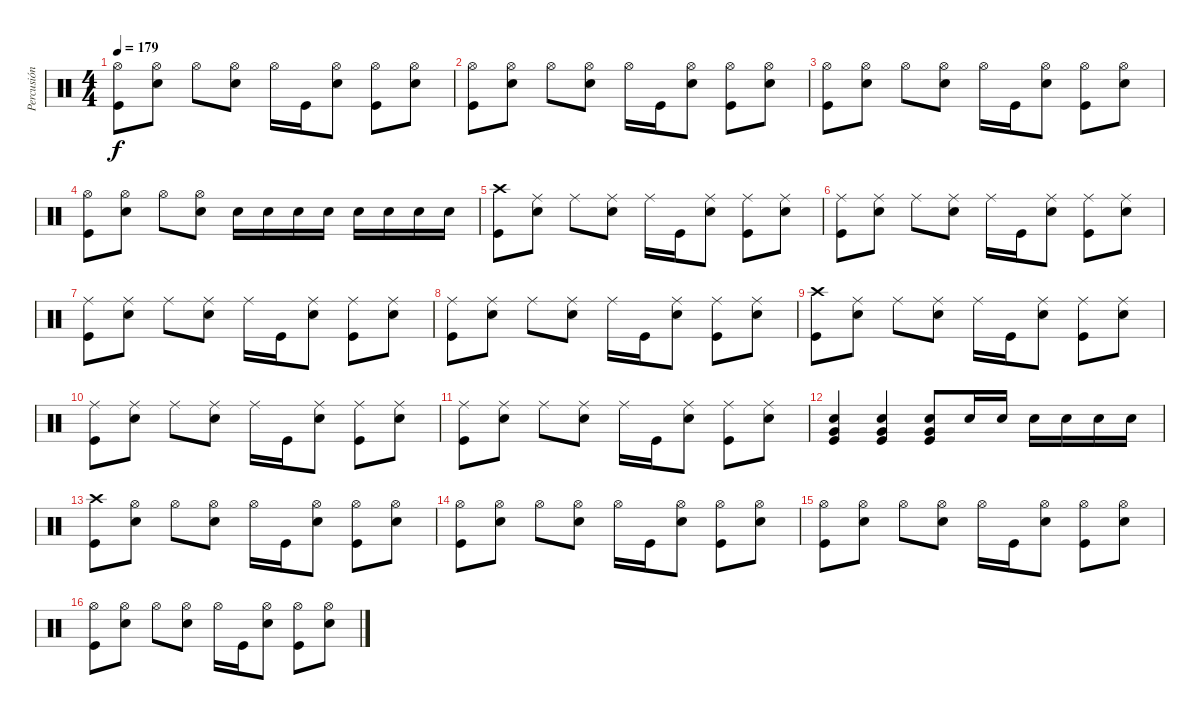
\track ("Percusión" "Percusión") {instrument percussion}
\staff {score}
\articulation defaults
\ts (4 4)
\tempo 179
\clef neutral
\ks c
("Hi-Hat (open)" "Kick (hit)").8{dy f} ("Hi-Hat (open)" "Snare (hit) 2").8 "Hi-Hat (open)".8 ("Hi-Hat (open)" "Snare (hit) 2").8 "Hi-Hat (open)".16 "Kick (hit)".16 ("Hi-Hat (open)" "Snare (hit) 2").8 ("Hi-Hat (open)" "Kick (hit)").8 ("Hi-Hat (open)" "Snare (hit) 2").8 |
("Hi-Hat (open)" "Kick (hit)").8 ("Hi-Hat (open)" "Snare (hit) 2").8 "Hi-Hat (open)".8 ("Hi-Hat (open)" "Snare (hit) 2").8 "Hi-Hat (open)".16 "Kick (hit)".16 ("Hi-Hat (open)" "Snare (hit) 2").8 ("Hi-Hat (open)" "Kick (hit)").8 ("Hi-Hat (open)" "Snare (hit) 2").8 |
("Hi-Hat (open)" "Kick (hit)").8 ("Hi-Hat (open)" "Snare (hit) 2").8 "Hi-Hat (open)".8 ("Hi-Hat (open)" "Snare (hit) 2").8 "Hi-Hat (open)".16 "Kick (hit)".16 ("Hi-Hat (open)" "Snare (hit) 2").8 ("Hi-Hat (open)" "Kick (hit)").8 ("Hi-Hat (open)" "Snare (hit) 2").8 |
("Hi-Hat (open)" "Kick (hit)").8 ("Hi-Hat (open)" "Snare (hit) 2").8 "Hi-Hat (open)".8 ("Hi-Hat (open)" "Snare (hit) 2").8 "Snare (hit) 2".16 "Snare (hit) 2".16 "Snare (hit) 2".16 "Snare (hit) 2".16 "Snare (hit) 2".16 "Snare (hit) 2".16 "Snare (hit) 2".16 "Snare (hit) 2".16 |
("Crash high (hit)" "Kick (hit)").8 ("Ride (middle)" "Snare (hit) 2").8 "Ride (middle)".8 ("Ride (middle)" "Snare (hit) 2").8 "Ride (middle)".16 "Kick (hit)".16 ("Ride (middle)" "Snare (hit) 2").8 ("Ride (middle)" "Kick (hit)").8 ("Ride (middle)" "Snare (hit) 2").8 |
("Ride (middle)" "Kick (hit)").8 ("Ride (middle)" "Snare (hit) 2").8 "Ride (middle)".8 ("Ride (middle)" "Snare (hit) 2").8 "Ride (middle)".16 "Kick (hit)".16 ("Ride (middle)" "Snare (hit) 2").8 ("Ride (middle)" "Kick (hit)").8 ("Ride (middle)" "Snare (hit) 2").8 |
("Ride (middle)" "Kick (hit)").8 ("Ride (middle)" "Snare (hit) 2").8 "Ride (middle)".8 ("Ride (middle)" "Snare (hit) 2").8 "Ride (middle)".16 "Kick (hit)".16 ("Ride (middle)" "Snare (hit) 2").8 ("Ride (middle)" "Kick (hit)").8 ("Ride (middle)" "Snare (hit) 2").8 |
("Ride (middle)" "Kick (hit)").8 ("Ride (middle)" "Snare (hit) 2").8 "Ride (middle)".8 ("Ride (middle)" "Snare (hit) 2").8 "Ride (middle)".16 "Kick (hit)".16 ("Ride (middle)" "Snare (hit) 2").8 ("Ride (middle)" "Kick (hit)").8 ("Ride (middle)" "Snare (hit) 2").8 |
("Crash high (hit)" "Kick (hit)").8 ("Ride (middle)" "Snare (hit) 2").8 "Ride (middle)".8 ("Ride (middle)" "Snare (hit) 2").8 "Ride (middle)".16 "Kick (hit)".16 ("Ride (middle)" "Snare (hit) 2").8 ("Ride (middle)" "Kick (hit)").8 ("Ride (middle)" "Snare (hit) 2").8 |
("Ride (middle)" "Kick (hit)").8 ("Ride (middle)" "Snare (hit) 2").8 "Ride (middle)".8 ("Ride (middle)" "Snare (hit) 2").8 "Ride (middle)".16 "Kick (hit)".16 ("Ride (middle)" "Snare (hit) 2").8 ("Ride (middle)" "Kick (hit)").8 ("Ride (middle)" "Snare (hit) 2").8 |
("Ride (middle)" "Kick (hit)").8 ("Ride (middle)" "Snare (hit) 2").8 "Ride (middle)".8 ("Ride (middle)" "Snare (hit) 2").8 "Ride (middle)".16 "Kick (hit)".16 ("Ride (middle)" "Snare (hit) 2").8 ("Ride (middle)" "Kick (hit)").8 ("Ride (middle)" "Snare (hit) 2").8 |
("Very Low Tom (hit)" "Snare (hit) 2" "Kick (hit)").4 ("Very Low Tom (hit)" "Snare (hit) 2" "Kick (hit)").4 ("Very Low Tom (hit)" "Snare (hit) 2" "Kick (hit)").8 "Snare (hit) 2".16 "Snare (hit) 2".16 "Snare (hit) 2".16 "Snare (hit) 2".16 "Snare (hit) 2".16 "Snare (hit) 2".16 |
("Crash high (hit)" "Kick (hit)").8 ("Hi-Hat (open)" "Snare (hit) 2").8 "Hi-Hat (open)".8 ("Hi-Hat (open)" "Snare (hit) 2").8 "Hi-Hat (open)".16 "Kick (hit)".16 ("Hi-Hat (open)" "Snare (hit) 2").8 ("Hi-Hat (open)" "Kick (hit)").8 ("Hi-Hat (open)" "Snare (hit) 2").8 |
("Hi-Hat (open)" "Kick (hit)").8 ("Hi-Hat (open)" "Snare (hit) 2").8 "Hi-Hat (open)".8 ("Hi-Hat (open)" "Snare (hit) 2").8 "Hi-Hat (open)".16 "Kick (hit)".16 ("Hi-Hat (open)" "Snare (hit) 2").8 ("Hi-Hat (open)" "Kick (hit)").8 ("Hi-Hat (open)" "Snare (hit) 2").8 |
("Hi-Hat (open)" "Kick (hit)").8 ("Hi-Hat (open)" "Snare (hit) 2").8 "Hi-Hat (open)".8 ("Hi-Hat (open)" "Snare (hit) 2").8 "Hi-Hat (open)".16 "Kick (hit)".16 ("Hi-Hat (open)" "Snare (hit) 2").8 ("Hi-Hat (open)" "Kick (hit)").8 ("Hi-Hat (open)" "Snare (hit) 2").8 |
("Hi-Hat (open)" "Kick (hit)").8 ("Hi-Hat (open)" "Snare (hit) 2").8 "Hi-Hat (open)".8 ("Hi-Hat (open)" "Snare (hit) 2").8 "Hi-Hat (open)".16 "Kick (hit)".16 ("Hi-Hat (open)" "Snare (hit) 2").8 ("Hi-Hat (open)" "Kick (hit)").8 ("Hi-Hat (open)" "Snare (hit) 2").8
